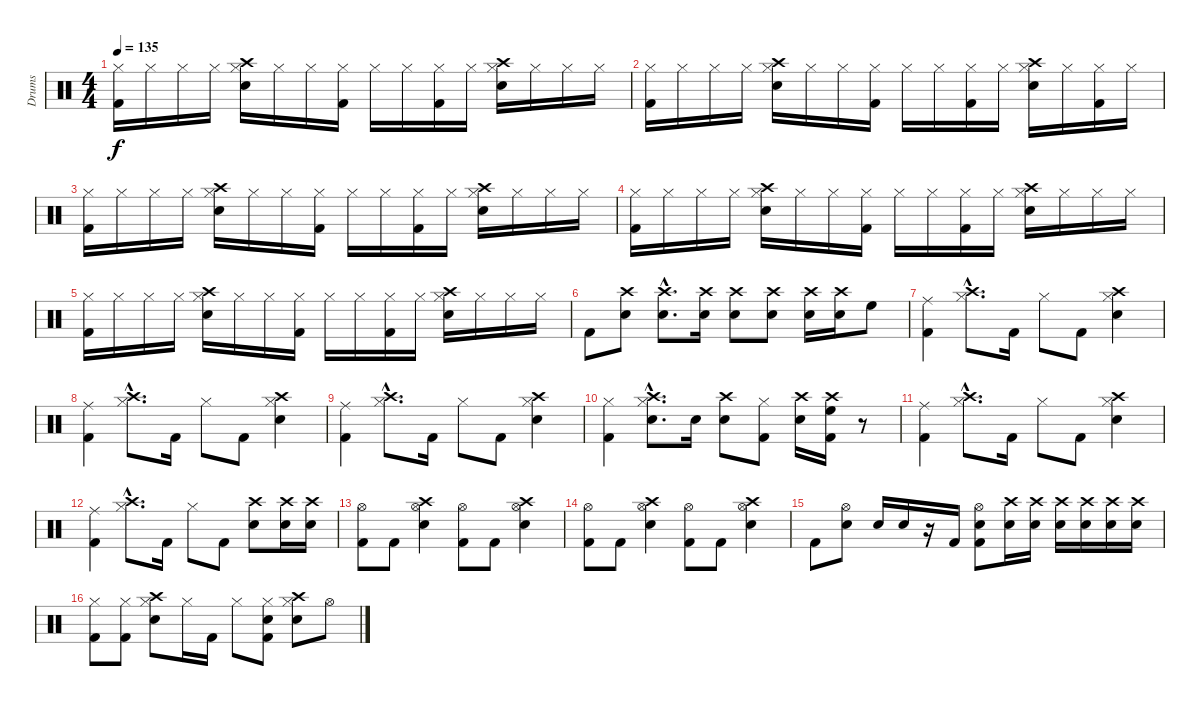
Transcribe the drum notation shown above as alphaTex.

\track ("Drums" "Drums") {instrument percussion}
\staff {score}
\articulation defaults
\ts (4 4)
\tempo 135
\clef neutral
\ks c
("Hi-Hat (closed)" "Kick (hit) 2").16{dy f} "Hi-Hat (closed)".16 "Hi-Hat (closed)".16 "Hi-Hat (closed)".16 ("Crash high (hit)" "Hi-Hat (closed)" "Snare (hit) 2").16 "Hi-Hat (closed)".16 "Hi-Hat (closed)".16 ("Hi-Hat (closed)" "Kick (hit) 2").16 "Hi-Hat (closed)".16 "Hi-Hat (closed)".16 ("Hi-Hat (closed)" "Kick (hit) 2").16 "Hi-Hat (closed)".16 ("Crash high (hit)" "Hi-Hat (closed)" "Snare (hit) 2").16 "Hi-Hat (closed)".16 "Hi-Hat (closed)".16 "Hi-Hat (closed)".16 |
("Hi-Hat (closed)" "Kick (hit) 2").16 "Hi-Hat (closed)".16 "Hi-Hat (closed)".16 "Hi-Hat (closed)".16 ("Crash high (hit)" "Hi-Hat (closed)" "Snare (hit) 2").16 "Hi-Hat (closed)".16 "Hi-Hat (closed)".16 ("Hi-Hat (closed)" "Kick (hit) 2").16 "Hi-Hat (closed)".16 "Hi-Hat (closed)".16 ("Hi-Hat (closed)" "Kick (hit) 2").16 "Hi-Hat (closed)".16 ("Crash high (hit)" "Hi-Hat (closed)" "Snare (hit) 2").16 "Hi-Hat (closed)".16 ("Hi-Hat (closed)" "Kick (hit) 2").16 "Hi-Hat (closed)".16 |
("Hi-Hat (closed)" "Kick (hit) 2").16 "Hi-Hat (closed)".16 "Hi-Hat (closed)".16 "Hi-Hat (closed)".16 ("Crash high (hit)" "Hi-Hat (closed)" "Snare (hit) 2").16 "Hi-Hat (closed)".16 "Hi-Hat (closed)".16 ("Hi-Hat (closed)" "Kick (hit) 2").16 "Hi-Hat (closed)".16 "Hi-Hat (closed)".16 ("Hi-Hat (closed)" "Kick (hit) 2").16 "Hi-Hat (closed)".16 ("Crash high (hit)" "Hi-Hat (closed)" "Snare (hit) 2").16 "Hi-Hat (closed)".16 "Hi-Hat (closed)".16 "Hi-Hat (closed)".16 |
("Hi-Hat (closed)" "Kick (hit) 2").16 "Hi-Hat (closed)".16 "Hi-Hat (closed)".16 "Hi-Hat (closed)".16 ("Crash high (hit)" "Hi-Hat (closed)" "Snare (hit) 2").16 "Hi-Hat (closed)".16 "Hi-Hat (closed)".16 ("Hi-Hat (closed)" "Kick (hit) 2").16 "Hi-Hat (closed)".16 "Hi-Hat (closed)".16 ("Hi-Hat (closed)" "Kick (hit) 2").16 "Hi-Hat (closed)".16 ("Crash high (hit)" "Hi-Hat (closed)" "Snare (hit) 2").16 "Hi-Hat (closed)".16 "Hi-Hat (closed)".16 "Hi-Hat (closed)".16 |
("Hi-Hat (closed)" "Kick (hit) 2").16 "Hi-Hat (closed)".16 "Hi-Hat (closed)".16 "Hi-Hat (closed)".16 ("Crash high (hit)" "Hi-Hat (closed)" "Snare (hit) 2").16 "Hi-Hat (closed)".16 "Hi-Hat (closed)".16 ("Hi-Hat (closed)" "Kick (hit) 2").16 "Hi-Hat (closed)".16 "Hi-Hat (closed)".16 ("Hi-Hat (closed)" "Kick (hit) 2").16 "Hi-Hat (closed)".16 ("Crash high (hit)" "Hi-Hat (closed)" "Snare (hit) 2").16 "Hi-Hat (closed)".16 "Hi-Hat (closed)".16 "Hi-Hat (closed)".16 |
"Kick (hit) 2".8 ("Crash high (hit)" "Snare (hit) 2").8 ("Crash high (hit)"{hac} "Snare (hit) 2"{hac}).8{d} ("Crash high (hit)" "Snare (hit) 2").16 ("Crash high (hit)" "Snare (hit) 2").8 ("Crash high (hit)" "Snare (hit) 2").8 ("Crash high (hit)" "Snare (hit) 2").16 ("Crash high (hit)" "Snare (hit) 2").16 "High Floor Tom (hit)".8 |
("Ride (middle)" "Kick (hit) 2").4 ("Crash high (hit)"{hac} "Hi-Hat (closed)"{hac}).8{d} "Kick (hit) 2".16 "Hi-Hat (closed)".8 "Kick (hit) 2".8 ("Crash high (hit)" "Hi-Hat (closed)" "Snare (hit) 2").4 |
("Ride (middle)" "Kick (hit) 2").4 ("Crash high (hit)"{hac} "Hi-Hat (closed)"{hac}).8{d} "Kick (hit) 2".16 "Hi-Hat (closed)".8 "Kick (hit) 2".8 ("Crash high (hit)" "Hi-Hat (closed)" "Snare (hit) 2").4 |
("Ride (middle)" "Kick (hit) 2").4 ("Crash high (hit)"{hac} "Hi-Hat (closed)"{hac}).8{d} "Kick (hit) 2".16 "Hi-Hat (closed)".8 "Kick (hit) 2".8 ("Crash high (hit)" "Hi-Hat (closed)" "Snare (hit) 2").4 |
("Hi-Hat (closed)" "Kick (hit) 2").4 ("Crash high (hit)"{hac} "Hi-Hat (closed)"{hac} "Snare (hit) 2"{hac}).8{d} "Snare (hit) 2".16 ("Crash high (hit)" "Snare (hit) 2").8 ("Hi-Hat (closed)" "Kick (hit) 2").8 ("Crash high (hit)" "Snare (hit) 2").16 ("Crash high (hit)" "High Floor Tom (hit)" "Kick (hit) 2").16 r.8 |
("Ride (middle)" "Kick (hit) 2").4 ("Crash high (hit)"{hac} "Hi-Hat (closed)"{hac}).8{d} "Kick (hit) 2".16 "Hi-Hat (closed)".8 "Kick (hit) 2".8 ("Crash high (hit)" "Hi-Hat (closed)" "Snare (hit) 2").4 |
("Ride (middle)" "Kick (hit) 2").4 ("Crash high (hit)"{hac} "Hi-Hat (closed)"{hac}).8{d} "Kick (hit) 2".16 "Hi-Hat (closed)".8 "Kick (hit) 2".8 ("Crash high (hit)" "Snare (hit) 2").8 ("Crash high (hit)" "Snare (hit) 2").16 ("Crash high (hit)" "Snare (hit) 2").16 |
("Hi-Hat (open)" "Kick (hit) 2").8 "Kick (hit) 2".8 ("Crash high (hit)" "Hi-Hat (open)" "Snare (hit) 2").4 ("Hi-Hat (open)" "Kick (hit) 2").8 "Kick (hit) 2".8 ("Crash high (hit)" "Hi-Hat (open)" "Snare (hit) 2").4 |
("Hi-Hat (open)" "Kick (hit) 2").8 "Kick (hit) 2".8 ("Crash high (hit)" "Hi-Hat (open)" "Snare (hit) 2").4 ("Hi-Hat (open)" "Kick (hit) 2").8 "Kick (hit) 2".8 ("Crash high (hit)" "Hi-Hat (open)" "Snare (hit) 2").4 |
"Kick (hit) 2".8 ("Hi-Hat (open)" "Snare (hit) 2").8 "Snare (hit) 2".16 "Snare (hit) 2".16 r.16 "Kick (hit) 2".16 ("Hi-Hat (open)" "Snare (hit) 2" "Kick (hit) 2").8 ("Crash high (hit)" "Snare (hit) 2").16 ("Crash high (hit)" "Snare (hit) 2").16 ("Crash high (hit)" "Snare (hit) 2").16 ("Crash high (hit)" "Snare (hit) 2").16 ("Crash high (hit)" "Snare (hit) 2").16 ("Crash high (hit)" "Snare (hit) 2").16 |
("Hi-Hat (closed)" "Kick (hit) 2").8 ("Hi-Hat (closed)" "Kick (hit) 2").8 ("Crash high (hit)" "Hi-Hat (closed)" "Snare (hit) 2").8 "Hi-Hat (closed)".16 "Kick (hit) 2".16 "Hi-Hat (closed)".8 ("Hi-Hat (closed)" "Snare (hit) 2" "Kick (hit) 2").8 ("Crash high (hit)" "Hi-Hat (closed)" "Snare (hit) 2").8 "Hi-Hat (open)".8
